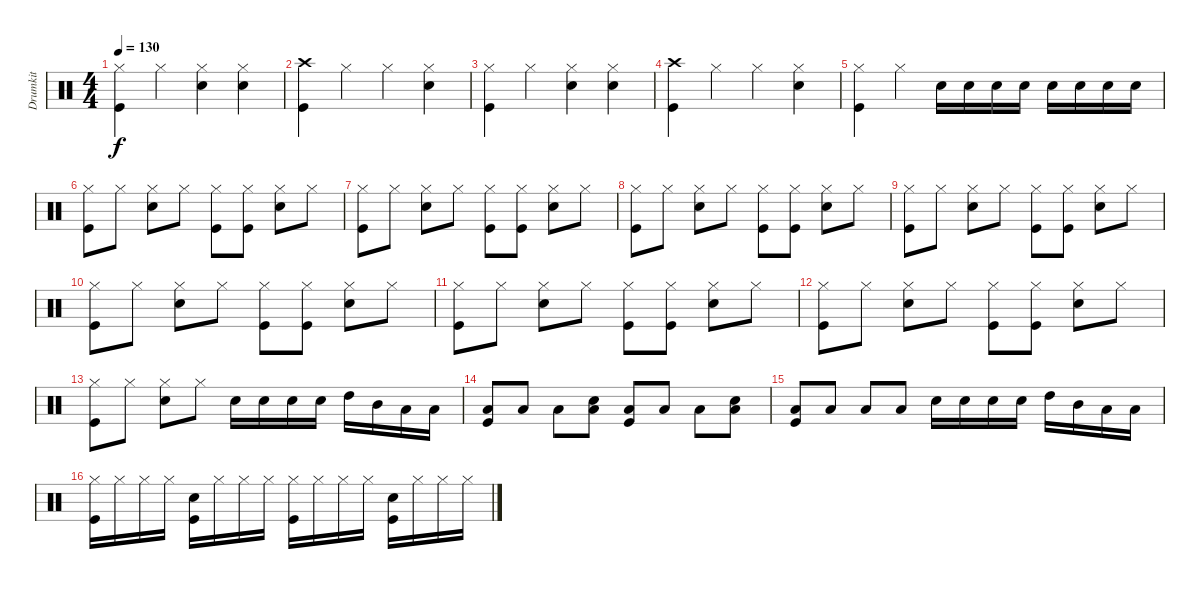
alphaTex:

\track ("Drumkit" "Drumkit") {instrument percussion}
\staff {score}
\articulation defaults
\ts (4 4)
\tempo 130
\clef neutral
\ks c
("Hi-Hat (closed)" "Kick (hit)").4{dy f} "Hi-Hat (closed)".4 ("Hi-Hat (closed)" "Snare (hit) 2").4 ("Hi-Hat (closed)" "Snare (hit) 2").4 |
("Crash high (hit)" "Kick (hit)").4 "Hi-Hat (closed)".4 "Hi-Hat (closed)".4 ("Hi-Hat (closed)" "Snare (hit) 2").4 |
("Hi-Hat (closed)" "Kick (hit)").4 "Hi-Hat (closed)".4 ("Hi-Hat (closed)" "Snare (hit) 2").4 ("Hi-Hat (closed)" "Snare (hit) 2").4 |
("Crash high (hit)" "Kick (hit)").4 "Hi-Hat (closed)".4 "Hi-Hat (closed)".4 ("Hi-Hat (closed)" "Snare (hit) 2").4 |
("Hi-Hat (closed)" "Kick (hit)").4 "Hi-Hat (closed)".4 "Snare (hit) 2".16 "Snare (hit) 2".16 "Snare (hit) 2".16 "Snare (hit) 2".16 "Snare (hit) 2".16 "Snare (hit) 2".16 "Snare (hit) 2".16 "Snare (hit) 2".16 |
("Hi-Hat (closed)" "Kick (hit)").8 "Hi-Hat (closed)".8 ("Hi-Hat (closed)" "Snare (hit) 2").8 "Hi-Hat (closed)".8 ("Hi-Hat (closed)" "Kick (hit)").8 ("Hi-Hat (closed)" "Kick (hit)").8 ("Hi-Hat (closed)" "Snare (hit) 2").8 "Hi-Hat (closed)".8 |
("Hi-Hat (closed)" "Kick (hit)").8 "Hi-Hat (closed)".8 ("Hi-Hat (closed)" "Snare (hit) 2").8 "Hi-Hat (closed)".8 ("Hi-Hat (closed)" "Kick (hit)").8 ("Hi-Hat (closed)" "Kick (hit)").8 ("Hi-Hat (closed)" "Snare (hit) 2").8 "Hi-Hat (closed)".8 |
("Hi-Hat (closed)" "Kick (hit)").8 "Hi-Hat (closed)".8 ("Hi-Hat (closed)" "Snare (hit) 2").8 "Hi-Hat (closed)".8 ("Hi-Hat (closed)" "Kick (hit)").8 ("Hi-Hat (closed)" "Kick (hit)").8 ("Hi-Hat (closed)" "Snare (hit) 2").8 "Hi-Hat (closed)".8 |
("Hi-Hat (closed)" "Kick (hit)").8 "Hi-Hat (closed)".8 ("Hi-Hat (closed)" "Snare (hit) 2").8 "Hi-Hat (closed)".8 ("Hi-Hat (closed)" "Kick (hit)").8 ("Hi-Hat (closed)" "Kick (hit)").8 ("Hi-Hat (closed)" "Snare (hit) 2").8 "Hi-Hat (closed)".8 |
("Hi-Hat (closed)" "Kick (hit)").8 "Hi-Hat (closed)".8 ("Hi-Hat (closed)" "Snare (hit) 2").8 "Hi-Hat (closed)".8 ("Hi-Hat (closed)" "Kick (hit)").8 ("Hi-Hat (closed)" "Kick (hit)").8 ("Hi-Hat (closed)" "Snare (hit) 2").8 "Hi-Hat (closed)".8 |
("Hi-Hat (closed)" "Kick (hit)").8 "Hi-Hat (closed)".8 ("Hi-Hat (closed)" "Snare (hit) 2").8 "Hi-Hat (closed)".8 ("Hi-Hat (closed)" "Kick (hit)").8 ("Hi-Hat (closed)" "Kick (hit)").8 ("Hi-Hat (closed)" "Snare (hit) 2").8 "Hi-Hat (closed)".8 |
("Hi-Hat (closed)" "Kick (hit)").8 "Hi-Hat (closed)".8 ("Hi-Hat (closed)" "Snare (hit) 2").8 "Hi-Hat (closed)".8 ("Hi-Hat (closed)" "Kick (hit)").8 ("Hi-Hat (closed)" "Kick (hit)").8 ("Hi-Hat (closed)" "Snare (hit) 2").8 "Hi-Hat (closed)".8 |
("Hi-Hat (closed)" "Kick (hit)").8 "Hi-Hat (closed)".8 ("Hi-Hat (closed)" "Snare (hit) 2").8 "Hi-Hat (closed)".8 "Snare (hit) 2".16 "Snare (hit) 2".16 "Snare (hit) 2".16 "Snare (hit) 2".16 "High Tom (hit)".16 "Mid Tom (hit)".16 "Low Tom (hit)".16 "Low Tom (hit)".16 |
("Low Tom (hit)" "Kick (hit)").8 "Low Tom (hit)".8 "Low Tom (hit)".8 ("Low Tom (hit)" "Snare (hit) 2").8 ("Low Tom (hit)" "Kick (hit)").8 "Low Tom (hit)".8 "Low Tom (hit)".8 ("Low Tom (hit)" "Snare (hit) 2").8 |
("Low Tom (hit)" "Kick (hit)").8 "Low Tom (hit)".8 "Low Tom (hit)".8 "Low Tom (hit)".8 "Snare (hit) 2".16 "Snare (hit) 2".16 "Snare (hit) 2".16 "Snare (hit) 2".16 "High Tom (hit)".16 "Mid Tom (hit)".16 "Low Tom (hit)".16 "Low Tom (hit)".16 |
("Hi-Hat (closed)" "Kick (hit)").16 "Hi-Hat (closed)".16 "Hi-Hat (closed)".16 "Hi-Hat (closed)".16 ("Snare (hit) 2" "Kick (hit)").16 "Hi-Hat (closed)".16 "Hi-Hat (closed)".16 "Hi-Hat (closed)".16 ("Hi-Hat (closed)" "Kick (hit)").16 "Hi-Hat (closed)".16 "Hi-Hat (closed)".16 "Hi-Hat (closed)".16 ("Snare (hit) 2" "Kick (hit)").16 "Hi-Hat (closed)".16 "Hi-Hat (closed)".16 "Hi-Hat (closed)".16
